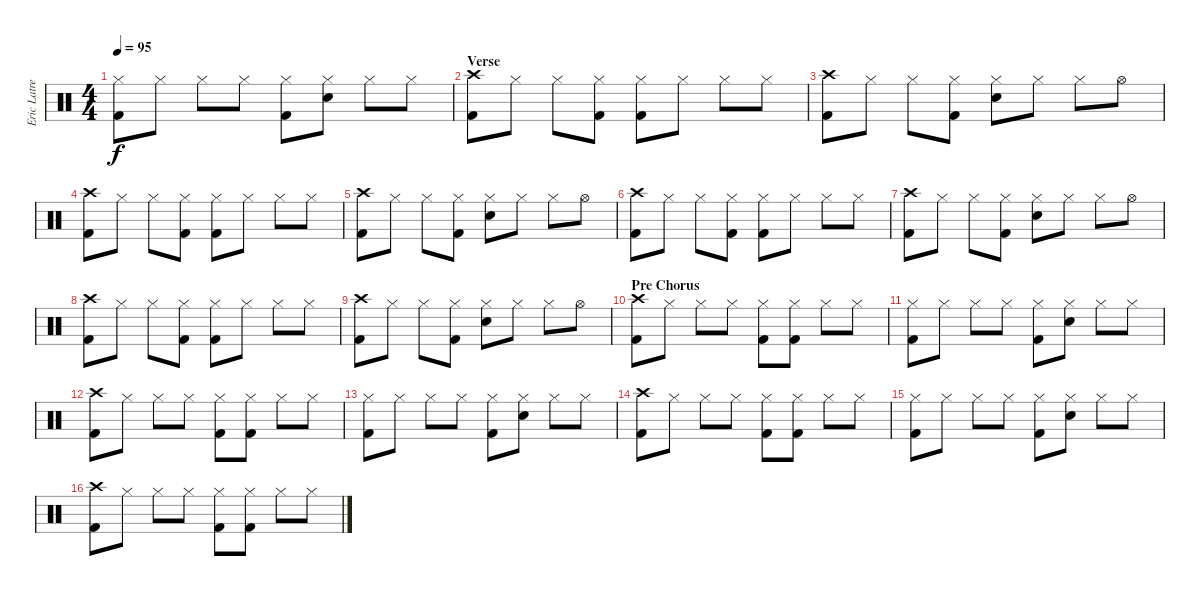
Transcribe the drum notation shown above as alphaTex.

\track ("Eric Latreille" "Eric Latre") {instrument percussion}
\staff {score}
\articulation defaults
\ts (4 4)
\tempo 95
\clef neutral
\ks c
("Hi-Hat (closed)" "Kick (hit) 2").8{dy f} "Hi-Hat (closed)".8 "Hi-Hat (closed)".8 "Hi-Hat (closed)".8 ("Hi-Hat (closed)" "Kick (hit) 2").8 ("Hi-Hat (closed)" "Snare (hit) 2").8 "Hi-Hat (closed)".8 "Hi-Hat (closed)".8 |
\section ("" "Verse")
("Crash high (hit)" "Kick (hit) 2").8 "Hi-Hat (closed)".8 "Hi-Hat (closed)".8 ("Hi-Hat (closed)" "Kick (hit) 2").8 ("Hi-Hat (closed)" "Kick (hit) 2").8 "Hi-Hat (closed)".8 "Hi-Hat (closed)".8 "Hi-Hat (closed)".8 |
("Crash high (hit)" "Kick (hit) 2").8 "Hi-Hat (closed)".8 "Hi-Hat (closed)".8 ("Hi-Hat (closed)" "Kick (hit) 2").8 ("Hi-Hat (closed)" "Snare (hit) 2").8 "Hi-Hat (closed)".8 "Hi-Hat (closed)".8 "Hi-Hat (open)".8 |
("Crash high (hit)" "Kick (hit) 2").8 "Hi-Hat (closed)".8 "Hi-Hat (closed)".8 ("Hi-Hat (closed)" "Kick (hit) 2").8 ("Hi-Hat (closed)" "Kick (hit) 2").8 "Hi-Hat (closed)".8 "Hi-Hat (closed)".8 "Hi-Hat (closed)".8 |
("Crash high (hit)" "Kick (hit) 2").8 "Hi-Hat (closed)".8 "Hi-Hat (closed)".8 ("Hi-Hat (closed)" "Kick (hit) 2").8 ("Hi-Hat (closed)" "Snare (hit) 2").8 "Hi-Hat (closed)".8 "Hi-Hat (closed)".8 "Hi-Hat (open)".8 |
("Crash high (hit)" "Kick (hit) 2").8 "Hi-Hat (closed)".8 "Hi-Hat (closed)".8 ("Hi-Hat (closed)" "Kick (hit) 2").8 ("Hi-Hat (closed)" "Kick (hit) 2").8 "Hi-Hat (closed)".8 "Hi-Hat (closed)".8 "Hi-Hat (closed)".8 |
("Crash high (hit)" "Kick (hit) 2").8 "Hi-Hat (closed)".8 "Hi-Hat (closed)".8 ("Hi-Hat (closed)" "Kick (hit) 2").8 ("Hi-Hat (closed)" "Snare (hit) 2").8 "Hi-Hat (closed)".8 "Hi-Hat (closed)".8 "Hi-Hat (open)".8 |
("Crash high (hit)" "Kick (hit) 2").8 "Hi-Hat (closed)".8 "Hi-Hat (closed)".8 ("Hi-Hat (closed)" "Kick (hit) 2").8 ("Hi-Hat (closed)" "Kick (hit) 2").8 "Hi-Hat (closed)".8 "Hi-Hat (closed)".8 "Hi-Hat (closed)".8 |
("Crash high (hit)" "Kick (hit) 2").8 "Hi-Hat (closed)".8 "Hi-Hat (closed)".8 ("Hi-Hat (closed)" "Kick (hit) 2").8 ("Hi-Hat (closed)" "Snare (hit) 2").8 "Hi-Hat (closed)".8 "Hi-Hat (closed)".8 "Hi-Hat (open)".8 |
\section ("" "Pre Chorus")
("Crash high (hit)" "Kick (hit) 2").8 "Hi-Hat (closed)".8 "Hi-Hat (closed)".8 "Hi-Hat (closed)".8 ("Hi-Hat (closed)" "Kick (hit) 2").8 ("Hi-Hat (closed)" "Kick (hit) 2").8 "Hi-Hat (closed)".8 "Hi-Hat (closed)".8 |
("Hi-Hat (closed)" "Kick (hit) 2").8 "Hi-Hat (closed)".8 "Hi-Hat (closed)".8 "Hi-Hat (closed)".8 ("Hi-Hat (closed)" "Kick (hit) 2").8 ("Hi-Hat (closed)" "Snare (hit) 2").8 "Hi-Hat (closed)".8 "Hi-Hat (closed)".8 |
("Crash high (hit)" "Kick (hit) 2").8 "Hi-Hat (closed)".8 "Hi-Hat (closed)".8 "Hi-Hat (closed)".8 ("Hi-Hat (closed)" "Kick (hit) 2").8 ("Hi-Hat (closed)" "Kick (hit) 2").8 "Hi-Hat (closed)".8 "Hi-Hat (closed)".8 |
("Hi-Hat (closed)" "Kick (hit) 2").8 "Hi-Hat (closed)".8 "Hi-Hat (closed)".8 "Hi-Hat (closed)".8 ("Hi-Hat (closed)" "Kick (hit) 2").8 ("Hi-Hat (closed)" "Snare (hit) 2").8 "Hi-Hat (closed)".8 "Hi-Hat (closed)".8 |
("Crash high (hit)" "Kick (hit) 2").8 "Hi-Hat (closed)".8 "Hi-Hat (closed)".8 "Hi-Hat (closed)".8 ("Hi-Hat (closed)" "Kick (hit) 2").8 ("Hi-Hat (closed)" "Kick (hit) 2").8 "Hi-Hat (closed)".8 "Hi-Hat (closed)".8 |
("Hi-Hat (closed)" "Kick (hit) 2").8 "Hi-Hat (closed)".8 "Hi-Hat (closed)".8 "Hi-Hat (closed)".8 ("Hi-Hat (closed)" "Kick (hit) 2").8 ("Hi-Hat (closed)" "Snare (hit) 2").8 "Hi-Hat (closed)".8 "Hi-Hat (closed)".8 |
("Crash high (hit)" "Kick (hit) 2").8 "Hi-Hat (closed)".8 "Hi-Hat (closed)".8 "Hi-Hat (closed)".8 ("Hi-Hat (closed)" "Kick (hit) 2").8 ("Hi-Hat (closed)" "Kick (hit) 2").8 "Hi-Hat (closed)".8 "Hi-Hat (closed)".8
